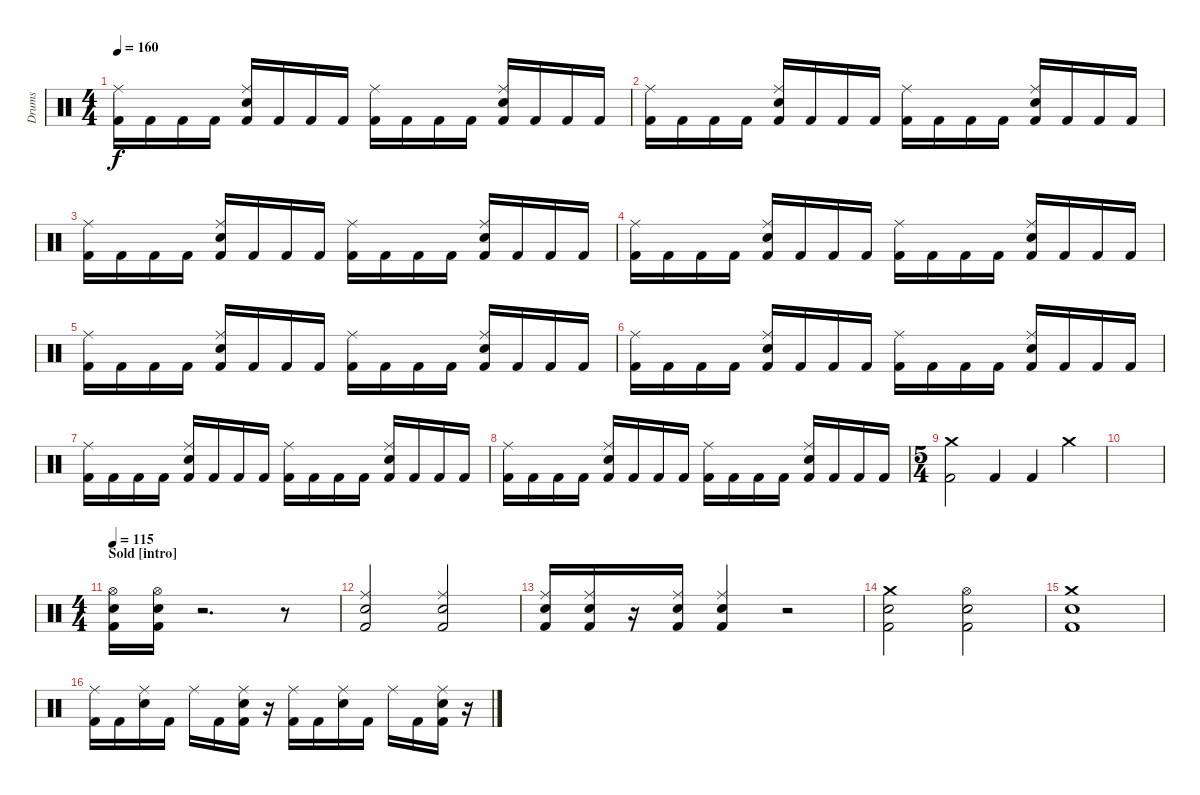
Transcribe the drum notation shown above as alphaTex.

\track ("Drums" "Drums") {instrument percussion}
\staff {score}
\articulation defaults
\ts (4 4)
\tempo 160
\clef neutral
\ks c
("Kick (hit) 2" "Ride (middle)").16{dy f} "Kick (hit) 2".16 "Kick (hit) 2".16 "Kick (hit) 2".16 ("Kick (hit) 2" "Electric Snare (hit)" "Ride (middle)").16 "Kick (hit) 2".16 "Kick (hit) 2".16 "Kick (hit) 2".16 ("Kick (hit) 2" "Ride (middle)").16 "Kick (hit) 2".16 "Kick (hit) 2".16 "Kick (hit) 2".16 ("Kick (hit) 2" "Electric Snare (hit)" "Ride (middle)").16 "Kick (hit) 2".16 "Kick (hit) 2".16 "Kick (hit) 2".16 |
("Kick (hit) 2" "Ride (middle)").16 "Kick (hit) 2".16 "Kick (hit) 2".16 "Kick (hit) 2".16 ("Kick (hit) 2" "Electric Snare (hit)" "Ride (middle)").16 "Kick (hit) 2".16 "Kick (hit) 2".16 "Kick (hit) 2".16 ("Kick (hit) 2" "Ride (middle)").16 "Kick (hit) 2".16 "Kick (hit) 2".16 "Kick (hit) 2".16 ("Kick (hit) 2" "Electric Snare (hit)" "Ride (middle)").16 "Kick (hit) 2".16 "Kick (hit) 2".16 "Kick (hit) 2".16 |
("Kick (hit) 2" "Ride (middle)").16 "Kick (hit) 2".16 "Kick (hit) 2".16 "Kick (hit) 2".16 ("Kick (hit) 2" "Electric Snare (hit)" "Ride (middle)").16 "Kick (hit) 2".16 "Kick (hit) 2".16 "Kick (hit) 2".16 ("Kick (hit) 2" "Ride (middle)").16 "Kick (hit) 2".16 "Kick (hit) 2".16 "Kick (hit) 2".16 ("Kick (hit) 2" "Electric Snare (hit)" "Ride (middle)").16 "Kick (hit) 2".16 "Kick (hit) 2".16 "Kick (hit) 2".16 |
("Kick (hit) 2" "Ride (middle)").16 "Kick (hit) 2".16 "Kick (hit) 2".16 "Kick (hit) 2".16 ("Kick (hit) 2" "Electric Snare (hit)" "Ride (middle)").16 "Kick (hit) 2".16 "Kick (hit) 2".16 "Kick (hit) 2".16 ("Kick (hit) 2" "Ride (middle)").16 "Kick (hit) 2".16 "Kick (hit) 2".16 "Kick (hit) 2".16 ("Kick (hit) 2" "Electric Snare (hit)" "Ride (middle)").16 "Kick (hit) 2".16 "Kick (hit) 2".16 "Kick (hit) 2".16 |
("Kick (hit) 2" "Ride (middle)").16 "Kick (hit) 2".16 "Kick (hit) 2".16 "Kick (hit) 2".16 ("Kick (hit) 2" "Electric Snare (hit)" "Ride (middle)").16 "Kick (hit) 2".16 "Kick (hit) 2".16 "Kick (hit) 2".16 ("Kick (hit) 2" "Ride (middle)").16 "Kick (hit) 2".16 "Kick (hit) 2".16 "Kick (hit) 2".16 ("Kick (hit) 2" "Electric Snare (hit)" "Ride (middle)").16 "Kick (hit) 2".16 "Kick (hit) 2".16 "Kick (hit) 2".16 |
("Kick (hit) 2" "Ride (middle)").16 "Kick (hit) 2".16 "Kick (hit) 2".16 "Kick (hit) 2".16 ("Kick (hit) 2" "Electric Snare (hit)" "Ride (middle)").16 "Kick (hit) 2".16 "Kick (hit) 2".16 "Kick (hit) 2".16 ("Kick (hit) 2" "Ride (middle)").16 "Kick (hit) 2".16 "Kick (hit) 2".16 "Kick (hit) 2".16 ("Kick (hit) 2" "Electric Snare (hit)" "Ride (middle)").16 "Kick (hit) 2".16 "Kick (hit) 2".16 "Kick (hit) 2".16 |
("Kick (hit) 2" "Ride (middle)").16 "Kick (hit) 2".16 "Kick (hit) 2".16 "Kick (hit) 2".16 ("Kick (hit) 2" "Electric Snare (hit)" "Ride (middle)").16 "Kick (hit) 2".16 "Kick (hit) 2".16 "Kick (hit) 2".16 ("Kick (hit) 2" "Ride (middle)").16 "Kick (hit) 2".16 "Kick (hit) 2".16 "Kick (hit) 2".16 ("Kick (hit) 2" "Electric Snare (hit)" "Ride (middle)").16 "Kick (hit) 2".16 "Kick (hit) 2".16 "Kick (hit) 2".16 |
("Kick (hit) 2" "Ride (middle)").16 "Kick (hit) 2".16 "Kick (hit) 2".16 "Kick (hit) 2".16 ("Kick (hit) 2" "Electric Snare (hit)" "Ride (middle)").16 "Kick (hit) 2".16 "Kick (hit) 2".16 "Kick (hit) 2".16 ("Kick (hit) 2" "Ride (middle)").16 "Kick (hit) 2".16 "Kick (hit) 2".16 "Kick (hit) 2".16 ("Kick (hit) 2" "Electric Snare (hit)" "Ride (middle)").16 "Kick (hit) 2".16 "Kick (hit) 2".16 "Kick (hit) 2".16 |
\ts (5 4)
("Kick (hit) 2" "Crash medium (hit)").2 "Kick (hit) 2".4 "Kick (hit) 2".4 "Crash medium (hit)".4 |
|
\ts (4 4)
\section ("" "Sold [intro]")
\tempo 115
("Kick (hit) 2" "Electric Snare (hit)" "Hi-Hat (open)").16 ("Kick (hit) 2" "Electric Snare (hit)" "Hi-Hat (open)").16 r.2{d} r.8 |
("Kick (hit) 2" "Electric Snare (hit)" "Ride (middle)").2 ("Kick (hit) 2" "Electric Snare (hit)" "Ride (middle)").2 |
("Kick (hit) 2" "Electric Snare (hit)" "Ride (middle)").16 ("Kick (hit) 2" "Electric Snare (hit)" "Ride (middle)").16 r.16 ("Kick (hit) 2" "Electric Snare (hit)" "Ride (middle)").16 ("Kick (hit) 2" "Electric Snare (hit)" "Ride (middle)").4 r.2 |
("Kick (hit) 2" "Electric Snare (hit)" "Crash medium (hit)").2 ("Kick (hit) 2" "Electric Snare (hit)" "Hi-Hat (open)").2 |
("Kick (hit) 2" "Electric Snare (hit)" "Crash medium (hit)").1 |
("Kick (hit) 2" "Ride (middle)").16 "Kick (hit) 2".16 ("Ride (middle)" "Electric Snare (hit)").16 "Kick (hit) 2".16 "Ride (middle)".16 "Kick (hit) 2".16 ("Kick (hit) 2" "Ride (middle)" "Electric Snare (hit)").16 r.16 ("Kick (hit) 2" "Ride (middle)").16 "Kick (hit) 2".16 ("Ride (middle)" "Electric Snare (hit)").16 "Kick (hit) 2".16 "Ride (middle)".16 "Kick (hit) 2".16 ("Kick (hit) 2" "Ride (middle)" "Electric Snare (hit)").16 r.16
